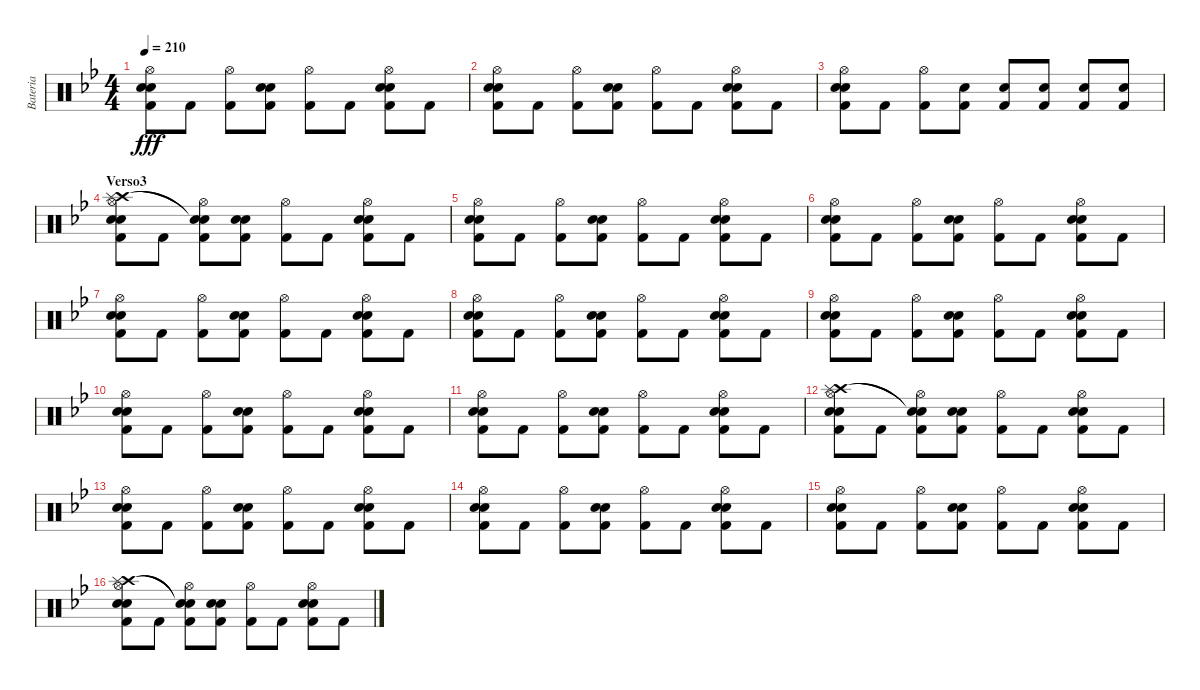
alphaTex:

\track ("Bateria" "Bateria") {instrument percussion}
\staff {score}
\articulation defaults
\ts (4 4)
\tempo 210
\clef neutral
\ks gminor
("Hi-Hat (open)" "Snare (hit) 2" "Kick (hit) 2" "Electric Snare (hit)").8{dy fff} "Kick (hit) 2".8 ("Hi-Hat (open)" "Kick (hit) 2").8 ("Snare (hit) 2" "Kick (hit) 2" "Electric Snare (hit)").8 ("Hi-Hat (open)" "Kick (hit) 2").8 "Kick (hit) 2".8 ("Hi-Hat (open)" "Snare (hit) 2" "Kick (hit) 2" "Electric Snare (hit)").8 "Kick (hit) 2".8 |
("Hi-Hat (open)" "Snare (hit) 2" "Kick (hit) 2" "Electric Snare (hit)").8 "Kick (hit) 2".8 ("Hi-Hat (open)" "Kick (hit) 2").8 ("Snare (hit) 2" "Kick (hit) 2" "Electric Snare (hit)").8 ("Hi-Hat (open)" "Kick (hit) 2").8 "Kick (hit) 2".8 ("Hi-Hat (open)" "Snare (hit) 2" "Kick (hit) 2" "Electric Snare (hit)").8 "Kick (hit) 2".8 |
("Hi-Hat (open)" "Snare (hit) 2" "Kick (hit) 2" "Electric Snare (hit)").8 "Kick (hit) 2".8 ("Hi-Hat (open)" "Kick (hit) 2").8 ("Snare (hit) 2" "Kick (hit) 2").8 ("Snare (hit) 2" "Kick (hit) 2").8 ("Snare (hit) 2" "Kick (hit) 2").8 ("Snare (hit) 2" "Kick (hit) 2").8 ("Snare (hit) 2" "Kick (hit) 2").8 |
\section ("" "Verso3")
("Hi-Hat (open)" "Crash high (hit)" "Splash (hit)" "Snare (hit) 2" "Electric Snare (hit)" "Kick (hit) 2").8 "Kick (hit) 2".8 ("Hi-Hat (open)" "Snare (hit)"{t} "Snare (hit)"{t} "Kick (hit) 2").8 ("Snare (hit) 2" "Electric Snare (hit)" "Kick (hit) 2").8 ("Hi-Hat (open)" "Kick (hit) 2").8 "Kick (hit) 2".8 ("Hi-Hat (open)" "Snare (hit) 2" "Electric Snare (hit)" "Kick (hit) 2").8 "Kick (hit) 2".8 |
("Hi-Hat (open)" "Snare (hit) 2" "Kick (hit) 2" "Electric Snare (hit)").8 "Kick (hit) 2".8 ("Hi-Hat (open)" "Kick (hit) 2").8 ("Snare (hit) 2" "Kick (hit) 2" "Electric Snare (hit)").8 ("Hi-Hat (open)" "Kick (hit) 2").8 "Kick (hit) 2".8 ("Hi-Hat (open)" "Snare (hit) 2" "Kick (hit) 2" "Electric Snare (hit)").8 "Kick (hit) 2".8 |
("Hi-Hat (open)" "Snare (hit) 2" "Kick (hit) 2" "Electric Snare (hit)").8 "Kick (hit) 2".8 ("Hi-Hat (open)" "Kick (hit) 2").8 ("Snare (hit) 2" "Kick (hit) 2" "Electric Snare (hit)").8 ("Hi-Hat (open)" "Kick (hit) 2").8 "Kick (hit) 2".8 ("Hi-Hat (open)" "Snare (hit) 2" "Kick (hit) 2" "Electric Snare (hit)").8 "Kick (hit) 2".8 |
("Hi-Hat (open)" "Snare (hit) 2" "Kick (hit) 2" "Electric Snare (hit)").8 "Kick (hit) 2".8 ("Hi-Hat (open)" "Kick (hit) 2").8 ("Snare (hit) 2" "Kick (hit) 2" "Electric Snare (hit)").8 ("Hi-Hat (open)" "Kick (hit) 2").8 "Kick (hit) 2".8 ("Hi-Hat (open)" "Snare (hit) 2" "Kick (hit) 2" "Electric Snare (hit)").8 "Kick (hit) 2".8 |
("Hi-Hat (open)" "Snare (hit) 2" "Kick (hit) 2" "Electric Snare (hit)").8 "Kick (hit) 2".8 ("Hi-Hat (open)" "Kick (hit) 2").8 ("Snare (hit) 2" "Kick (hit) 2" "Electric Snare (hit)").8 ("Hi-Hat (open)" "Kick (hit) 2").8 "Kick (hit) 2".8 ("Hi-Hat (open)" "Snare (hit) 2" "Kick (hit) 2" "Electric Snare (hit)").8 "Kick (hit) 2".8 |
("Hi-Hat (open)" "Snare (hit) 2" "Kick (hit) 2" "Electric Snare (hit)").8 "Kick (hit) 2".8 ("Hi-Hat (open)" "Kick (hit) 2").8 ("Snare (hit) 2" "Kick (hit) 2" "Electric Snare (hit)").8 ("Hi-Hat (open)" "Kick (hit) 2").8 "Kick (hit) 2".8 ("Hi-Hat (open)" "Snare (hit) 2" "Kick (hit) 2" "Electric Snare (hit)").8 "Kick (hit) 2".8 |
("Hi-Hat (open)" "Snare (hit) 2" "Kick (hit) 2" "Electric Snare (hit)").8 "Kick (hit) 2".8 ("Hi-Hat (open)" "Kick (hit) 2").8 ("Snare (hit) 2" "Kick (hit) 2" "Electric Snare (hit)").8 ("Hi-Hat (open)" "Kick (hit) 2").8 "Kick (hit) 2".8 ("Hi-Hat (open)" "Snare (hit) 2" "Kick (hit) 2" "Electric Snare (hit)").8 "Kick (hit) 2".8 |
("Hi-Hat (open)" "Snare (hit) 2" "Kick (hit) 2" "Electric Snare (hit)").8 "Kick (hit) 2".8 ("Hi-Hat (open)" "Kick (hit) 2").8 ("Snare (hit) 2" "Kick (hit) 2" "Electric Snare (hit)").8 ("Hi-Hat (open)" "Kick (hit) 2").8 "Kick (hit) 2".8 ("Hi-Hat (open)" "Snare (hit) 2" "Kick (hit) 2" "Electric Snare (hit)").8 "Kick (hit) 2".8 |
("Hi-Hat (open)" "Crash high (hit)" "Splash (hit)" "Snare (hit) 2" "Kick (hit) 2" "Electric Snare (hit)").8 "Kick (hit) 2".8 ("Hi-Hat (open)" "Snare (hit)"{t} "Snare (hit)"{t} "Kick (hit) 2").8 ("Snare (hit) 2" "Kick (hit) 2" "Electric Snare (hit)").8 ("Hi-Hat (open)" "Kick (hit) 2").8 "Kick (hit) 2".8 ("Hi-Hat (open)" "Snare (hit) 2" "Kick (hit) 2" "Electric Snare (hit)").8 "Kick (hit) 2".8 |
("Hi-Hat (open)" "Snare (hit) 2" "Kick (hit) 2" "Electric Snare (hit)").8 "Kick (hit) 2".8 ("Hi-Hat (open)" "Kick (hit) 2").8 ("Snare (hit) 2" "Kick (hit) 2" "Electric Snare (hit)").8 ("Hi-Hat (open)" "Kick (hit) 2").8 "Kick (hit) 2".8 ("Hi-Hat (open)" "Snare (hit) 2" "Kick (hit) 2" "Electric Snare (hit)").8 "Kick (hit) 2".8 |
("Hi-Hat (open)" "Snare (hit) 2" "Kick (hit) 2" "Electric Snare (hit)").8 "Kick (hit) 2".8 ("Hi-Hat (open)" "Kick (hit) 2").8 ("Snare (hit) 2" "Kick (hit) 2" "Electric Snare (hit)").8 ("Hi-Hat (open)" "Kick (hit) 2").8 "Kick (hit) 2".8 ("Hi-Hat (open)" "Snare (hit) 2" "Kick (hit) 2" "Electric Snare (hit)").8 "Kick (hit) 2".8 |
("Hi-Hat (open)" "Snare (hit) 2" "Kick (hit) 2" "Electric Snare (hit)").8 "Kick (hit) 2".8 ("Hi-Hat (open)" "Kick (hit) 2").8 ("Snare (hit) 2" "Kick (hit) 2" "Electric Snare (hit)").8 ("Hi-Hat (open)" "Kick (hit) 2").8 "Kick (hit) 2".8 ("Hi-Hat (open)" "Snare (hit) 2" "Kick (hit) 2" "Electric Snare (hit)").8 "Kick (hit) 2".8 |
("Hi-Hat (open)" "Crash high (hit)" "Splash (hit)" "Snare (hit) 2" "Kick (hit) 2" "Electric Snare (hit)").8 "Kick (hit) 2".8 ("Hi-Hat (open)" "Snare (hit)"{t} "Snare (hit)"{t} "Kick (hit) 2").8 ("Snare (hit) 2" "Kick (hit) 2" "Electric Snare (hit)").8 ("Hi-Hat (open)" "Kick (hit) 2").8 "Kick (hit) 2".8 ("Hi-Hat (open)" "Snare (hit) 2" "Kick (hit) 2" "Electric Snare (hit)").8 "Kick (hit) 2".8
